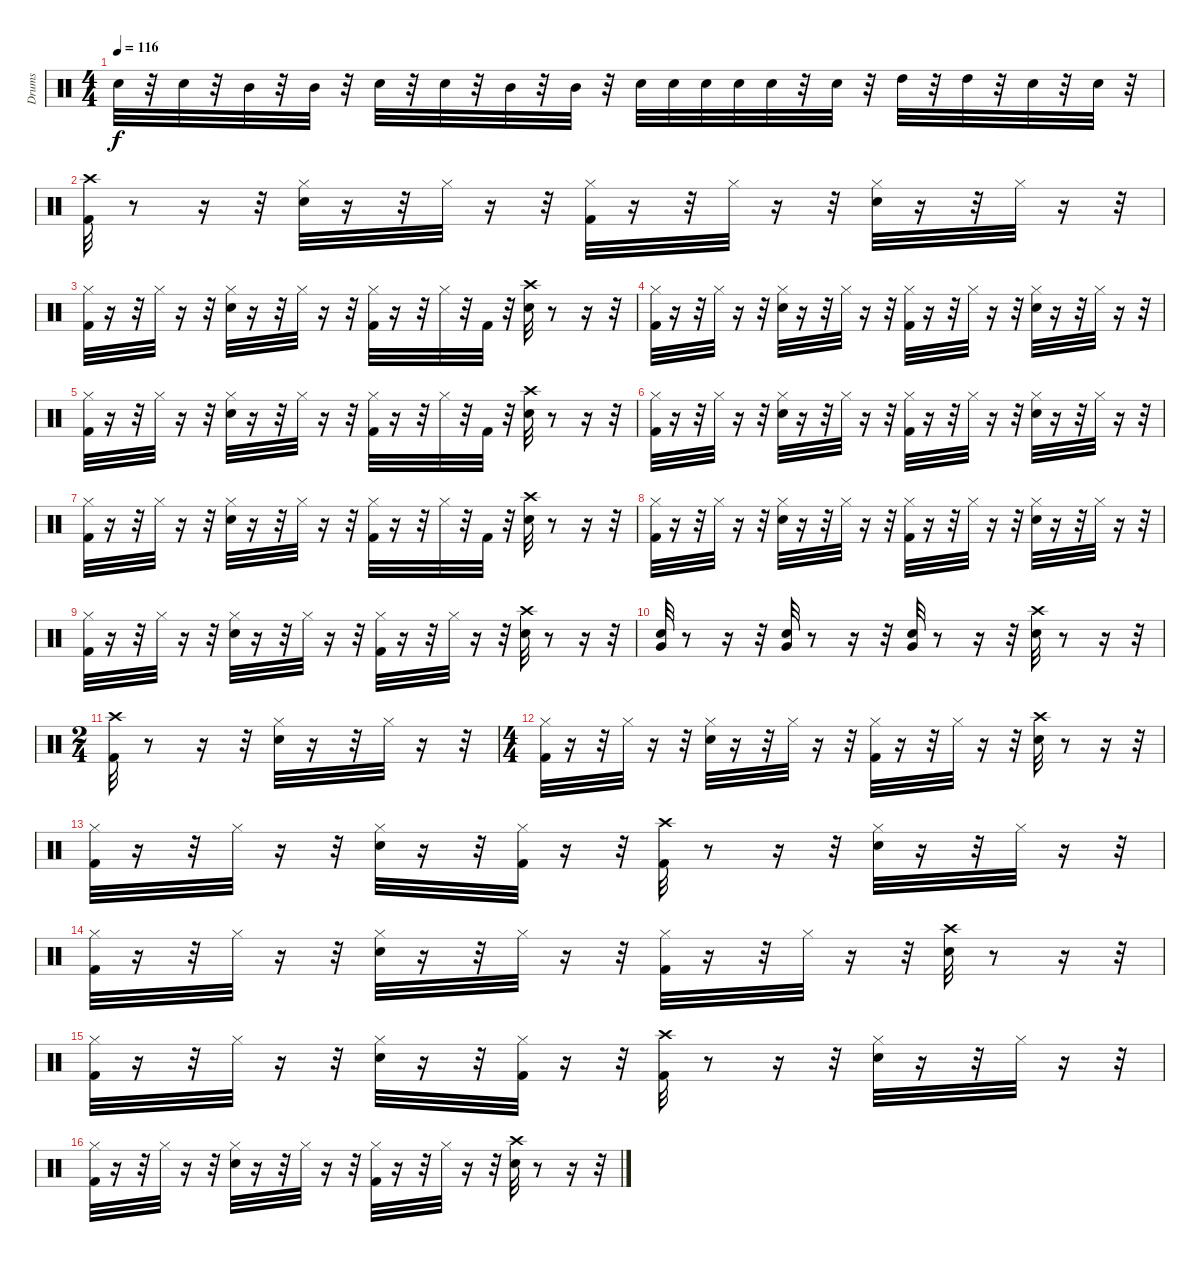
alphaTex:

\track ("Drums" "Drums") {instrument percussion}
\staff {score}
\articulation defaults
\ts (4 4)
\tempo 116
\clef neutral
\ks c "Snare (hit) 2".32{dy f}
r.32 "Snare (hit) 2".32 r.32 "Mid Tom (hit)".32 r.32 "Mid Tom (hit)".32 r.32 "Snare (hit) 2".32 r.32 "Snare (hit) 2".32 r.32 "Mid Tom (hit)".32 r.32 "Mid Tom (hit)".32 r.32 "Snare (hit) 2".32 "Snare (hit) 2".32 "Snare (hit) 2".32 "Snare (hit) 2".32 "Snare (hit) 2".32 r.32 "Snare (hit) 2".32 r.32 "High Tom (hit)".32 r.32 "High Tom (hit)".32 r.32 "Snare (hit) 2".32 r.32 "Snare (hit) 2".32 r.32 |
("Kick (hit) 2" "Crash high (hit)").32 r.8 r.16 r.32 ("Hi-Hat (closed)" "Snare (hit) 2").32 r.16 r.32 "Hi-Hat (closed)".32 r.16 r.32 ("Hi-Hat (closed)" "Kick (hit) 2").32 r.16 r.32 "Hi-Hat (closed)".32 r.16 r.32 ("Snare (hit) 2" "Hi-Hat (closed)").32 r.16 r.32 "Hi-Hat (closed)".32 r.16 r.32 |
("Kick (hit) 2" "Hi-Hat (closed)").32 r.16 r.32 "Hi-Hat (closed)".32 r.16 r.32 ("Snare (hit) 2" "Hi-Hat (closed)").32 r.16 r.32 "Hi-Hat (closed)".32 r.16 r.32 ("Hi-Hat (closed)" "Kick (hit) 2").32 r.16 r.32 "Hi-Hat (closed)".32 r.32 "Kick (hit) 2".32 r.32 ("Crash high (hit)" "Snare (hit) 2").32 r.8 r.16 r.32 |
("Kick (hit) 2" "Hi-Hat (closed)").32 r.16 r.32 "Hi-Hat (closed)".32 r.16 r.32 ("Snare (hit) 2" "Hi-Hat (closed)").32 r.16 r.32 "Hi-Hat (closed)".32 r.16 r.32 ("Kick (hit) 2" "Hi-Hat (closed)").32 r.16 r.32 "Hi-Hat (closed)".32 r.16 r.32 ("Snare (hit) 2" "Hi-Hat (closed)").32 r.16 r.32 "Hi-Hat (closed)".32 r.16 r.32 |
("Hi-Hat (closed)" "Kick (hit) 2").32 r.16 r.32 "Hi-Hat (closed)".32 r.16 r.32 ("Snare (hit) 2" "Hi-Hat (closed)").32 r.16 r.32 "Hi-Hat (closed)".32 r.16 r.32 ("Hi-Hat (closed)" "Kick (hit) 2").32 r.16 r.32 "Hi-Hat (closed)".32 r.32 "Kick (hit) 2".32 r.32 ("Crash high (hit)" "Snare (hit) 2").32 r.8 r.16 r.32 |
("Kick (hit) 2" "Hi-Hat (closed)").32 r.16 r.32 "Hi-Hat (closed)".32 r.16 r.32 ("Snare (hit) 2" "Hi-Hat (closed)").32 r.16 r.32 "Hi-Hat (closed)".32 r.16 r.32 ("Kick (hit) 2" "Hi-Hat (closed)").32 r.16 r.32 "Hi-Hat (closed)".32 r.16 r.32 ("Snare (hit) 2" "Hi-Hat (closed)").32 r.16 r.32 "Hi-Hat (closed)".32 r.16 r.32 |
("Kick (hit) 2" "Hi-Hat (closed)").32 r.16 r.32 "Hi-Hat (closed)".32 r.16 r.32 ("Snare (hit) 2" "Hi-Hat (closed)").32 r.16 r.32 "Hi-Hat (closed)".32 r.16 r.32 ("Hi-Hat (closed)" "Kick (hit) 2").32 r.16 r.32 "Hi-Hat (closed)".32 r.32 "Kick (hit) 2".32 r.32 ("Crash high (hit)" "Snare (hit) 2").32 r.8 r.16 r.32 |
("Kick (hit) 2" "Hi-Hat (closed)").32 r.16 r.32 "Hi-Hat (closed)".32 r.16 r.32 ("Snare (hit) 2" "Hi-Hat (closed)").32 r.16 r.32 "Hi-Hat (closed)".32 r.16 r.32 ("Kick (hit) 2" "Hi-Hat (closed)").32 r.16 r.32 "Hi-Hat (closed)".32 r.16 r.32 ("Snare (hit) 2" "Hi-Hat (closed)").32 r.16 r.32 "Hi-Hat (closed)".32 r.16 r.32 |
("Kick (hit) 2" "Hi-Hat (closed)").32 r.16 r.32 "Hi-Hat (closed)".32 r.16 r.32 ("Snare (hit) 2" "Hi-Hat (closed)").32 r.16 r.32 "Hi-Hat (closed)".32 r.16 r.32 ("Hi-Hat (closed)" "Kick (hit) 2").32 r.16 r.32 "Hi-Hat (closed)".32 r.16 r.32 ("Crash high (hit)" "Snare (hit) 2").32 r.8 r.16 r.32 |
("Very Low Tom (hit)" "Snare (hit) 2").32 r.8 r.16 r.32 ("Very Low Tom (hit)" "Snare (hit) 2").32 r.8 r.16 r.32 ("Very Low Tom (hit)" "Snare (hit) 2").32 r.8 r.16 r.32 ("Crash high (hit)" "Snare (hit) 2").32 r.8 r.16 r.32 |
\ts (2 4)
("Kick (hit) 2" "Crash high (hit)").32 r.8 r.16 r.32 ("Hi-Hat (closed)" "Snare (hit) 2").32 r.16 r.32 "Hi-Hat (closed)".32 r.16 r.32 |
\ts (4 4)
("Kick (hit) 2" "Hi-Hat (closed)").32 r.16 r.32 "Hi-Hat (closed)".32 r.16 r.32 ("Snare (hit) 2" "Hi-Hat (closed)").32 r.16 r.32 "Hi-Hat (closed)".32 r.16 r.32 ("Hi-Hat (closed)" "Kick (hit) 2").32 r.16 r.32 "Hi-Hat (closed)".32 r.16 r.32 ("Crash high (hit)" "Snare (hit) 2").32 r.8 r.16 r.32 |
("Kick (hit) 2" "Hi-Hat (closed)").32 r.16 r.32 "Hi-Hat (closed)".32 r.16 r.32 ("Snare (hit) 2" "Hi-Hat (closed)").32 r.16 r.32 ("Kick (hit) 2" "Hi-Hat (closed)").32 r.16 r.32 ("Crash high (hit)" "Kick (hit) 2").32 r.8 r.16 r.32 ("Hi-Hat (closed)" "Snare (hit) 2").32 r.16 r.32 "Hi-Hat (closed)".32 r.16 r.32 |
("Kick (hit) 2" "Hi-Hat (closed)").32 r.16 r.32 "Hi-Hat (closed)".32 r.16 r.32 ("Snare (hit) 2" "Hi-Hat (closed)").32 r.16 r.32 "Hi-Hat (closed)".32 r.16 r.32 ("Hi-Hat (closed)" "Kick (hit) 2").32 r.16 r.32 "Hi-Hat (closed)".32 r.16 r.32 ("Crash high (hit)" "Snare (hit) 2").32 r.8 r.16 r.32 |
("Kick (hit) 2" "Hi-Hat (closed)").32 r.16 r.32 "Hi-Hat (closed)".32 r.16 r.32 ("Snare (hit) 2" "Hi-Hat (closed)").32 r.16 r.32 ("Kick (hit) 2" "Hi-Hat (closed)").32 r.16 r.32 ("Crash high (hit)" "Kick (hit) 2").32 r.8 r.16 r.32 ("Hi-Hat (closed)" "Snare (hit) 2").32 r.16 r.32 "Hi-Hat (closed)".32 r.16 r.32 |
("Kick (hit) 2" "Hi-Hat (closed)").32 r.16 r.32 "Hi-Hat (closed)".32 r.16 r.32 ("Snare (hit) 2" "Hi-Hat (closed)").32 r.16 r.32 "Hi-Hat (closed)".32 r.16 r.32 ("Hi-Hat (closed)" "Kick (hit) 2").32 r.16 r.32 "Hi-Hat (closed)".32 r.16 r.32 ("Crash high (hit)" "Snare (hit) 2").32 r.8 r.16 r.32
